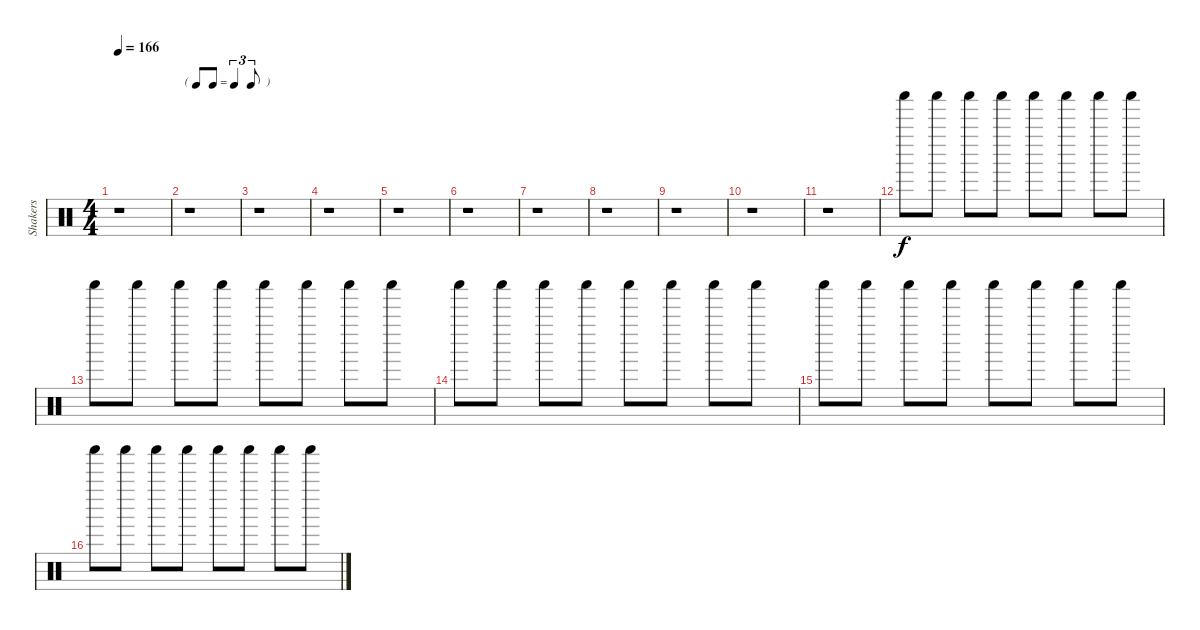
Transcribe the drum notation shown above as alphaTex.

\track ("Shakers" "Shakers") {instrument percussion}
\staff {score}
\articulation defaults
\ts (4 4)
\tempo 166
\clef neutral
\ks c
r.1{dy f} |
\tf triplet8th
r.1 |
r.1 |
r.1 |
r.1 |
r.1 |
r.1 |
r.1 |
r.1 |
r.1 |
r.1 |
"Shaker (hit)".8 "Shaker (hit)".8 "Shaker (hit)".8 "Shaker (hit)".8 "Shaker (hit)".8 "Shaker (hit)".8 "Shaker (hit)".8 "Shaker (hit)".8 |
"Shaker (hit)".8 "Shaker (hit)".8 "Shaker (hit)".8 "Shaker (hit)".8 "Shaker (hit)".8 "Shaker (hit)".8 "Shaker (hit)".8 "Shaker (hit)".8 |
"Shaker (hit)".8 "Shaker (hit)".8 "Shaker (hit)".8 "Shaker (hit)".8 "Shaker (hit)".8 "Shaker (hit)".8 "Shaker (hit)".8 "Shaker (hit)".8 |
"Shaker (hit)".8 "Shaker (hit)".8 "Shaker (hit)".8 "Shaker (hit)".8 "Shaker (hit)".8 "Shaker (hit)".8 "Shaker (hit)".8 "Shaker (hit)".8 |
"Shaker (hit)".8 "Shaker (hit)".8 "Shaker (hit)".8 "Shaker (hit)".8 "Shaker (hit)".8 "Shaker (hit)".8 "Shaker (hit)".8 "Shaker (hit)".8
